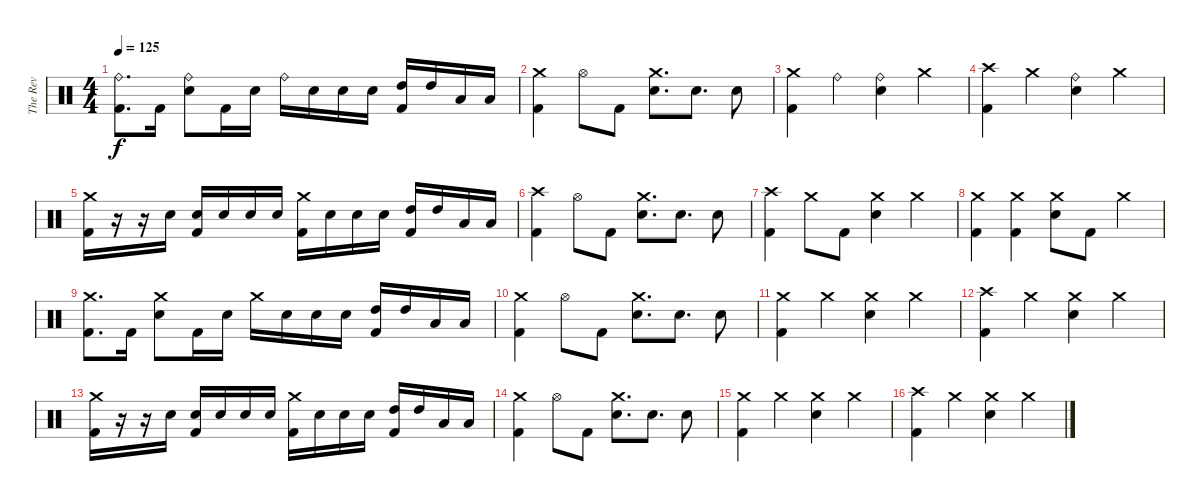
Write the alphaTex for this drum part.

\track ("The Rev" "The Rev") {instrument percussion}
\staff {score}
\articulation defaults
\ts (4 4)
\tempo 125
\clef neutral
\ks c
("Ride (bell)" "Kick (hit) 2").8{d dy f} "Kick (hit) 2".16 ("Ride (bell)" "Electric Snare (hit)").8 "Kick (hit) 2".16 "Electric Snare (hit)".16 "Ride (bell)".16 "Electric Snare (hit)".16 "Electric Snare (hit)".16 "Electric Snare (hit)".16 ("High Tom (hit)" "Kick (hit) 2").16 "High Tom (hit)".16 "Low Tom (hit)".16 "Low Tom (hit)".16 |
("Crash medium (hit)" "Kick (hit) 2").4 "Hi-Hat (open)".8 "Kick (hit) 2".8 ("Crash medium (hit)" "Electric Snare (hit)").8{d} "Electric Snare (hit)".8{d} "Electric Snare (hit)".8 |
("Crash medium (hit)" "Kick (hit) 2").4 "Ride (bell)".4 ("Ride (bell)" "Electric Snare (hit)").4 "Crash medium (hit)".4 |
("Crash high (hit)" "Kick (hit) 2").4 "Crash medium (hit)".4 ("Ride (bell)" "Electric Snare (hit)").4 "Crash medium (hit)".4 |
("Crash medium (hit)" "Kick (hit) 2").16 r.16 r.16 "Electric Snare (hit)".16 ("Electric Snare (hit)" "Kick (hit) 2").16 "Electric Snare (hit)".16 "Electric Snare (hit)".16 "Electric Snare (hit)".16 ("Crash medium (hit)" "Kick (hit) 2").16 "Electric Snare (hit)".16 "Electric Snare (hit)".16 "Electric Snare (hit)".16 ("High Tom (hit)" "Kick (hit) 2").16 "High Tom (hit)".16 "Low Tom (hit)".16 "Low Tom (hit)".16 |
("Crash high (hit)" "Kick (hit) 2").4 "Hi-Hat (open)".8 "Kick (hit) 2".8 ("Crash medium (hit)" "Electric Snare (hit)").8{d} "Electric Snare (hit)".8{d} "Electric Snare (hit)".8 |
("Crash high (hit)" "Kick (hit) 2").4 "Crash medium (hit)".8 "Kick (hit) 2".8 ("Crash medium (hit)" "Electric Snare (hit)").4 "Crash medium (hit)".4 |
("Crash medium (hit)" "Kick (hit) 2").4 ("Crash medium (hit)" "Kick (hit) 2").4 ("Crash medium (hit)" "Electric Snare (hit)").8 "Kick (hit) 2".8 "Crash medium (hit)".4 |
("Crash medium (hit)" "Kick (hit) 2").8{d} "Kick (hit) 2".16 ("Crash medium (hit)" "Electric Snare (hit)").8 "Kick (hit) 2".16 "Electric Snare (hit)".16 "Crash medium (hit)".16 "Electric Snare (hit)".16 "Electric Snare (hit)".16 "Electric Snare (hit)".16 ("High Tom (hit)" "Kick (hit) 2").16 "High Tom (hit)".16 "Low Tom (hit)".16 "Low Tom (hit)".16 |
("Crash medium (hit)" "Kick (hit) 2").4 "Hi-Hat (open)".8 "Kick (hit) 2".8 ("Crash medium (hit)" "Electric Snare (hit)").8{d} "Electric Snare (hit)".8{d} "Electric Snare (hit)".8 |
("Crash medium (hit)" "Kick (hit) 2").4 "Crash medium (hit)".4 ("Crash medium (hit)" "Electric Snare (hit)").4 "Crash medium (hit)".4 |
("Crash high (hit)" "Kick (hit) 2").4 "Crash medium (hit)".4 ("Crash medium (hit)" "Electric Snare (hit)").4 "Crash medium (hit)".4 |
("Crash medium (hit)" "Kick (hit) 2").16 r.16 r.16 "Electric Snare (hit)".16 ("Electric Snare (hit)" "Kick (hit) 2").16 "Electric Snare (hit)".16 "Electric Snare (hit)".16 "Electric Snare (hit)".16 ("Crash medium (hit)" "Kick (hit) 2").16 "Electric Snare (hit)".16 "Electric Snare (hit)".16 "Electric Snare (hit)".16 ("High Tom (hit)" "Kick (hit) 2").16 "High Tom (hit)".16 "Low Tom (hit)".16 "Low Tom (hit)".16 |
("Crash medium (hit)" "Kick (hit) 2").4 "Hi-Hat (open)".8 "Kick (hit) 2".8 ("Crash medium (hit)" "Electric Snare (hit)").8{d} "Electric Snare (hit)".8{d} "Electric Snare (hit)".8 |
("Crash medium (hit)" "Kick (hit) 2").4 "Crash medium (hit)".4 ("Crash medium (hit)" "Electric Snare (hit)").4 "Crash medium (hit)".4 |
("Crash high (hit)" "Kick (hit) 2").4 "Crash medium (hit)".4 ("Crash medium (hit)" "Electric Snare (hit)").4 "Crash medium (hit)".4
